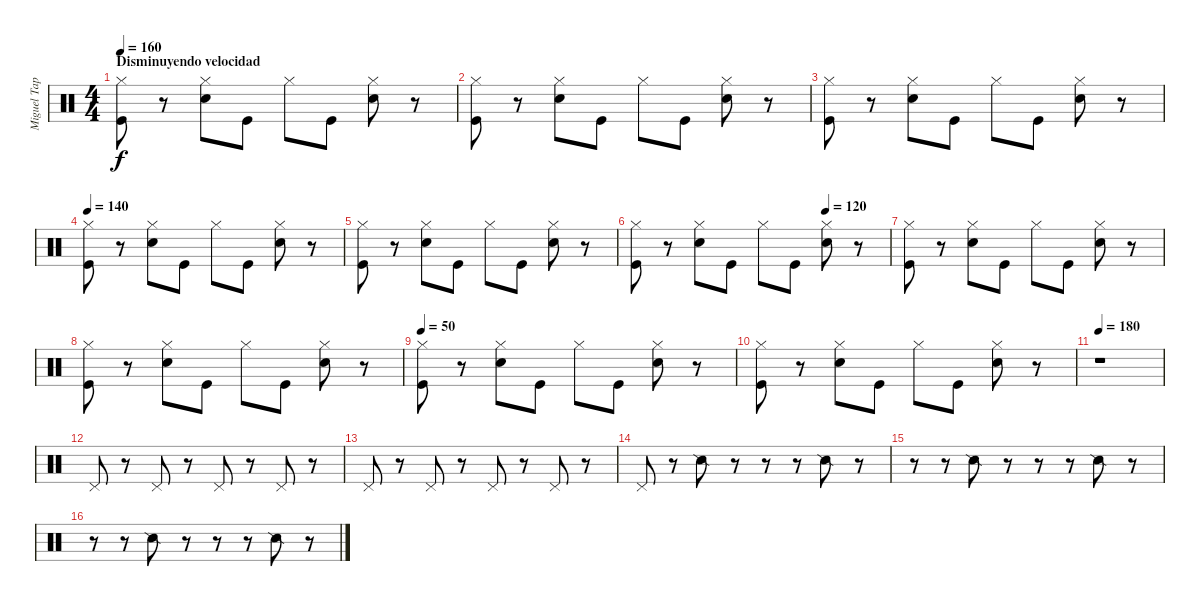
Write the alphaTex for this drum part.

\track ("Miguel Tapia (Batería)" "Miguel Tap") {instrument percussion}
\staff {score}
\articulation defaults
\ts (4 4)
\section ("" "Disminuyendo velocidad")
\tempo 160
\clef neutral
\ks c
("Hi-Hat (closed)" "Kick (hit)").8{dy f} r.8 ("Hi-Hat (closed)" "Snare (hit) 2").8 "Kick (hit)".8 "Hi-Hat (closed)".8 "Kick (hit)".8 ("Hi-Hat (closed)" "Snare (hit) 2").8 r.8 |
("Hi-Hat (closed)" "Kick (hit)").8 r.8 ("Hi-Hat (closed)" "Snare (hit) 2").8 "Kick (hit)".8 "Hi-Hat (closed)".8 "Kick (hit)".8 ("Hi-Hat (closed)" "Snare (hit) 2").8 r.8 |
("Hi-Hat (closed)" "Kick (hit)").8 r.8 ("Hi-Hat (closed)" "Snare (hit) 2").8 "Kick (hit)".8 "Hi-Hat (closed)".8 "Kick (hit)".8 ("Hi-Hat (closed)" "Snare (hit) 2").8 r.8 |
\tempo 140
("Hi-Hat (closed)" "Kick (hit)").8 r.8 ("Hi-Hat (closed)" "Snare (hit) 2").8 "Kick (hit)".8 "Hi-Hat (closed)".8 "Kick (hit)".8 ("Hi-Hat (closed)" "Snare (hit) 2").8 r.8 |
("Hi-Hat (closed)" "Kick (hit)").8 r.8 ("Hi-Hat (closed)" "Snare (hit) 2").8 "Kick (hit)".8 "Hi-Hat (closed)".8 "Kick (hit)".8 ("Hi-Hat (closed)" "Snare (hit) 2").8 r.8 |
\tempo (120 0.75)
("Hi-Hat (closed)" "Kick (hit)").8 r.8 ("Hi-Hat (closed)" "Snare (hit) 2").8 "Kick (hit)".8 "Hi-Hat (closed)".8 "Kick (hit)".8 ("Hi-Hat (closed)" "Snare (hit) 2").8 r.8 |
("Hi-Hat (closed)" "Kick (hit)").8 r.8 ("Hi-Hat (closed)" "Snare (hit) 2").8 "Kick (hit)".8 "Hi-Hat (closed)".8 "Kick (hit)".8 ("Hi-Hat (closed)" "Snare (hit) 2").8 r.8 |
("Hi-Hat (closed)" "Kick (hit)").8 r.8 ("Hi-Hat (closed)" "Snare (hit) 2").8 "Kick (hit)".8 "Hi-Hat (closed)".8 "Kick (hit)".8 ("Hi-Hat (closed)" "Snare (hit) 2").8 r.8 |
\tempo 50
("Hi-Hat (closed)" "Kick (hit)").8 r.8 ("Hi-Hat (closed)" "Snare (hit) 2").8 "Kick (hit)".8 "Hi-Hat (closed)".8 "Kick (hit)".8 ("Hi-Hat (closed)" "Snare (hit) 2").8 r.8 |
("Hi-Hat (closed)" "Kick (hit)").8 r.8 ("Hi-Hat (closed)" "Snare (hit) 2").8 "Kick (hit)".8 "Hi-Hat (closed)".8 "Kick (hit)".8 ("Hi-Hat (closed)" "Snare (hit) 2").8 r.8 |
\tempo 180
r.1 |
"Pedal Hi-Hat (hit)".8 r.8 "Pedal Hi-Hat (hit)".8 r.8 "Pedal Hi-Hat (hit)".8 r.8 "Pedal Hi-Hat (hit)".8 r.8 |
"Pedal Hi-Hat (hit)".8 r.8 "Pedal Hi-Hat (hit)".8 r.8 "Pedal Hi-Hat (hit)".8 r.8 "Pedal Hi-Hat (hit)".8 r.8 |
"Pedal Hi-Hat (hit)".8 r.8 "Snare (side stick) 2".8 r.8 r.8 r.8 "Snare (side stick) 2".8 r.8 |
r.8 r.8 "Snare (side stick) 2".8 r.8 r.8 r.8 "Snare (side stick) 2".8 r.8 |
r.8 r.8 "Snare (side stick) 2".8 r.8 r.8 r.8 "Snare (side stick) 2".8 r.8
